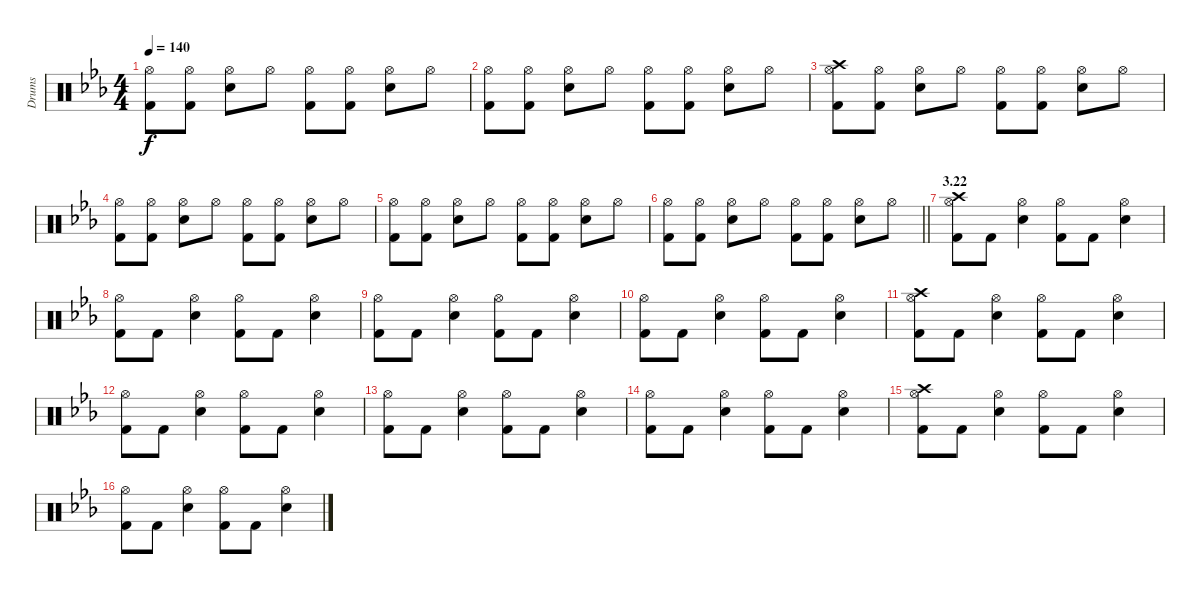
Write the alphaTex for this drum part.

\track ("Drums" "Drums") {instrument percussion}
\staff {score}
\articulation defaults
\ts (4 4)
\tempo 140
\clef neutral
\ks cminor
("Hi-Hat (open)" "Kick (hit) 2").8{dy f} ("Hi-Hat (open)" "Kick (hit) 2").8 ("Hi-Hat (open)" "Electric Snare (hit)").8 "Hi-Hat (open)".8 ("Hi-Hat (open)" "Kick (hit) 2").8 ("Hi-Hat (open)" "Kick (hit) 2").8 ("Hi-Hat (open)" "Electric Snare (hit)").8 "Hi-Hat (open)".8 |
("Hi-Hat (open)" "Kick (hit) 2").8 ("Hi-Hat (open)" "Kick (hit) 2").8 ("Hi-Hat (open)" "Electric Snare (hit)").8 "Hi-Hat (open)".8 ("Hi-Hat (open)" "Kick (hit) 2").8 ("Hi-Hat (open)" "Kick (hit) 2").8 ("Hi-Hat (open)" "Electric Snare (hit)").8 "Hi-Hat (open)".8 |
("Crash high (hit)" "Hi-Hat (open)" "Kick (hit) 2").8 ("Hi-Hat (open)" "Kick (hit) 2").8 ("Hi-Hat (open)" "Electric Snare (hit)").8 "Hi-Hat (open)".8 ("Hi-Hat (open)" "Kick (hit) 2").8 ("Hi-Hat (open)" "Kick (hit) 2").8 ("Hi-Hat (open)" "Electric Snare (hit)").8 "Hi-Hat (open)".8 |
("Hi-Hat (open)" "Kick (hit) 2").8 ("Hi-Hat (open)" "Kick (hit) 2").8 ("Hi-Hat (open)" "Electric Snare (hit)").8 "Hi-Hat (open)".8 ("Hi-Hat (open)" "Kick (hit) 2").8 ("Hi-Hat (open)" "Kick (hit) 2").8 ("Hi-Hat (open)" "Electric Snare (hit)").8 "Hi-Hat (open)".8 |
("Hi-Hat (open)" "Kick (hit) 2").8 ("Hi-Hat (open)" "Kick (hit) 2").8 ("Hi-Hat (open)" "Electric Snare (hit)").8 "Hi-Hat (open)".8 ("Hi-Hat (open)" "Kick (hit) 2").8 ("Hi-Hat (open)" "Kick (hit) 2").8 ("Hi-Hat (open)" "Electric Snare (hit)").8 "Hi-Hat (open)".8 |
\barLineRight lightlight
("Hi-Hat (open)" "Kick (hit) 2").8 ("Hi-Hat (open)" "Kick (hit) 2").8 ("Hi-Hat (open)" "Electric Snare (hit)").8 "Hi-Hat (open)".8 ("Hi-Hat (open)" "Kick (hit) 2").8 ("Hi-Hat (open)" "Kick (hit) 2").8 ("Hi-Hat (open)" "Electric Snare (hit)").8 "Hi-Hat (open)".8 |
\section ("" "3.22")
("Crash high (hit)" "Hi-Hat (open)" "Kick (hit) 2").8 "Kick (hit) 2".8 ("Hi-Hat (open)" "Electric Snare (hit)").4 ("Hi-Hat (open)" "Kick (hit) 2").8 "Kick (hit) 2".8 ("Hi-Hat (open)" "Electric Snare (hit)").4 |
("Hi-Hat (open)" "Kick (hit) 2").8 "Kick (hit) 2".8 ("Hi-Hat (open)" "Electric Snare (hit)").4 ("Hi-Hat (open)" "Kick (hit) 2").8 "Kick (hit) 2".8 ("Hi-Hat (open)" "Electric Snare (hit)").4 |
("Hi-Hat (open)" "Kick (hit) 2").8 "Kick (hit) 2".8 ("Hi-Hat (open)" "Electric Snare (hit)").4 ("Hi-Hat (open)" "Kick (hit) 2").8 "Kick (hit) 2".8 ("Hi-Hat (open)" "Electric Snare (hit)").4 |
("Hi-Hat (open)" "Kick (hit) 2").8 "Kick (hit) 2".8 ("Hi-Hat (open)" "Electric Snare (hit)").4 ("Hi-Hat (open)" "Kick (hit) 2").8 "Kick (hit) 2".8 ("Hi-Hat (open)" "Electric Snare (hit)").4 |
("Crash high (hit)" "Hi-Hat (open)" "Kick (hit) 2").8 "Kick (hit) 2".8 ("Hi-Hat (open)" "Electric Snare (hit)").4 ("Hi-Hat (open)" "Kick (hit) 2").8 "Kick (hit) 2".8 ("Hi-Hat (open)" "Electric Snare (hit)").4 |
("Hi-Hat (open)" "Kick (hit) 2").8 "Kick (hit) 2".8 ("Hi-Hat (open)" "Electric Snare (hit)").4 ("Hi-Hat (open)" "Kick (hit) 2").8 "Kick (hit) 2".8 ("Hi-Hat (open)" "Electric Snare (hit)").4 |
("Hi-Hat (open)" "Kick (hit) 2").8 "Kick (hit) 2".8 ("Hi-Hat (open)" "Electric Snare (hit)").4 ("Hi-Hat (open)" "Kick (hit) 2").8 "Kick (hit) 2".8 ("Hi-Hat (open)" "Electric Snare (hit)").4 |
("Hi-Hat (open)" "Kick (hit) 2").8 "Kick (hit) 2".8 ("Hi-Hat (open)" "Electric Snare (hit)").4 ("Hi-Hat (open)" "Kick (hit) 2").8 "Kick (hit) 2".8 ("Hi-Hat (open)" "Electric Snare (hit)").4 |
("Crash high (hit)" "Hi-Hat (open)" "Kick (hit) 2").8 "Kick (hit) 2".8 ("Hi-Hat (open)" "Electric Snare (hit)").4 ("Hi-Hat (open)" "Kick (hit) 2").8 "Kick (hit) 2".8 ("Hi-Hat (open)" "Electric Snare (hit)").4 |
("Hi-Hat (open)" "Kick (hit) 2").8 "Kick (hit) 2".8 ("Hi-Hat (open)" "Electric Snare (hit)").4 ("Hi-Hat (open)" "Kick (hit) 2").8 "Kick (hit) 2".8 ("Hi-Hat (open)" "Electric Snare (hit)").4
